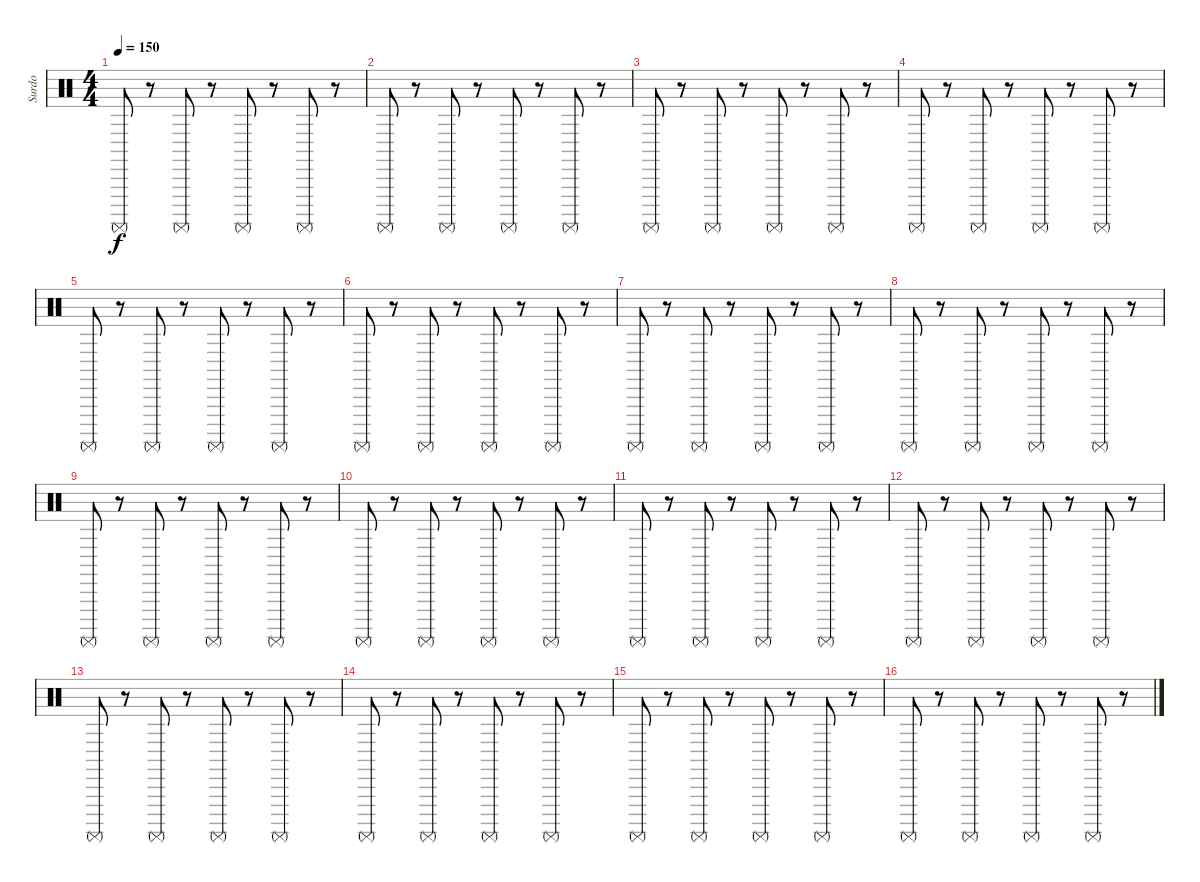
\track ("Surdo" "Surdo") {instrument percussion}
\staff {score}
\articulation defaults
\ts (4 4)
\tempo 150
\clef neutral
\ks c "Surdo (mute)".8{dy f}
r.8 "Surdo (mute)".8 r.8 "Surdo (mute)".8 r.8 "Surdo (mute)".8 r.8 |
"Surdo (mute)".8 r.8 "Surdo (mute)".8 r.8 "Surdo (mute)".8 r.8 "Surdo (mute)".8 r.8 |
"Surdo (mute)".8 r.8 "Surdo (mute)".8 r.8 "Surdo (mute)".8 r.8 "Surdo (mute)".8 r.8 |
"Surdo (mute)".8 r.8 "Surdo (mute)".8 r.8 "Surdo (mute)".8 r.8 "Surdo (mute)".8 r.8 |
"Surdo (mute)".8 r.8 "Surdo (mute)".8 r.8 "Surdo (mute)".8 r.8 "Surdo (mute)".8 r.8 |
"Surdo (mute)".8 r.8 "Surdo (mute)".8 r.8 "Surdo (mute)".8 r.8 "Surdo (mute)".8 r.8 |
"Surdo (mute)".8 r.8 "Surdo (mute)".8 r.8 "Surdo (mute)".8 r.8 "Surdo (mute)".8 r.8 |
"Surdo (mute)".8 r.8 "Surdo (mute)".8 r.8 "Surdo (mute)".8 r.8 "Surdo (mute)".8 r.8 |
"Surdo (mute)".8 r.8 "Surdo (mute)".8 r.8 "Surdo (mute)".8 r.8 "Surdo (mute)".8 r.8 |
"Surdo (mute)".8 r.8 "Surdo (mute)".8 r.8 "Surdo (mute)".8 r.8 "Surdo (mute)".8 r.8 |
"Surdo (mute)".8 r.8 "Surdo (mute)".8 r.8 "Surdo (mute)".8 r.8 "Surdo (mute)".8 r.8 |
"Surdo (mute)".8 r.8 "Surdo (mute)".8 r.8 "Surdo (mute)".8 r.8 "Surdo (mute)".8 r.8 |
"Surdo (mute)".8 r.8 "Surdo (mute)".8 r.8 "Surdo (mute)".8 r.8 "Surdo (mute)".8 r.8 |
"Surdo (mute)".8 r.8 "Surdo (mute)".8 r.8 "Surdo (mute)".8 r.8 "Surdo (mute)".8 r.8 |
"Surdo (mute)".8 r.8 "Surdo (mute)".8 r.8 "Surdo (mute)".8 r.8 "Surdo (mute)".8 r.8 |
"Surdo (mute)".8 r.8 "Surdo (mute)".8 r.8 "Surdo (mute)".8 r.8 "Surdo (mute)".8 r.8
